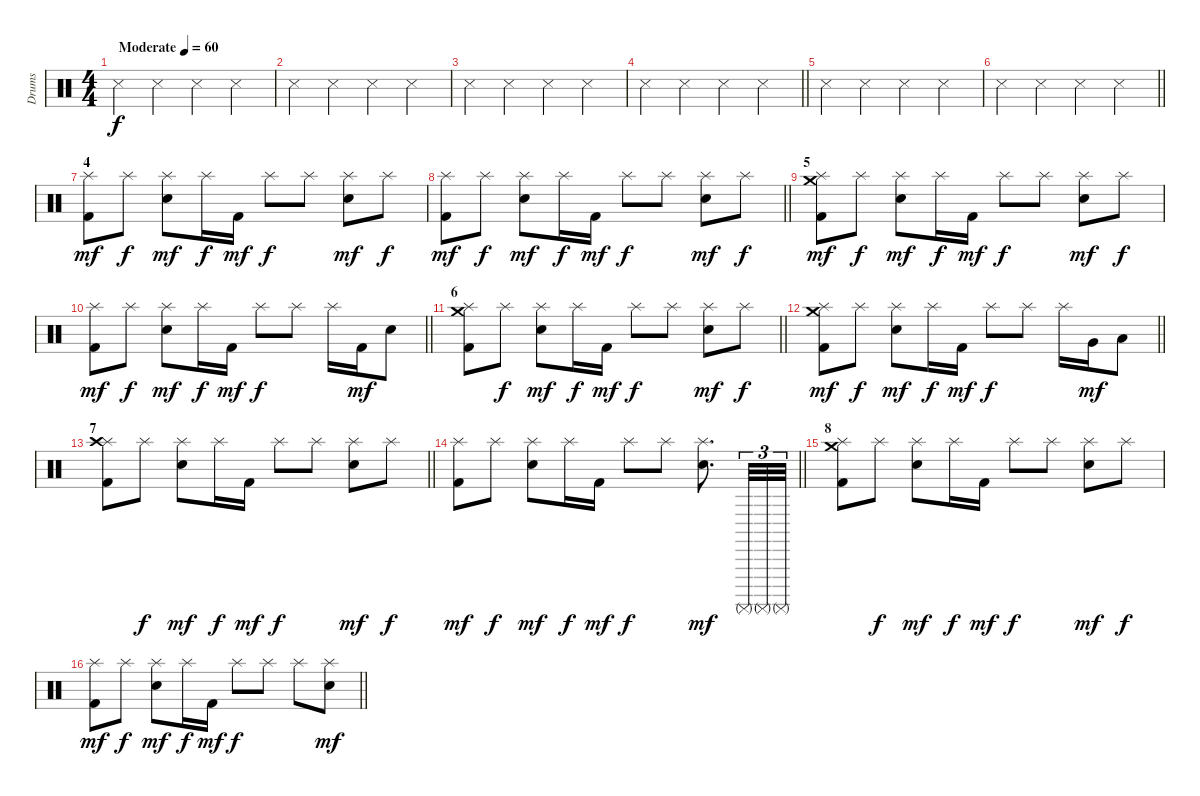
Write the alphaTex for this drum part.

\track ("Drums" "Drums") {instrument percussion}
\staff {score}
\articulation defaults
\ts (4 4)
\tempo (60 "Moderate")
\clef neutral
\ks c "Metronome (hit)".4{dy f} "Metronome (hit)".4 "Metronome (hit)".4 "Metronome (hit)".4
|
"Metronome (hit)".4 "Metronome (hit)".4 "Metronome (hit)".4 "Metronome (hit)".4 |
"Metronome (hit)".4 "Metronome (hit)".4 "Metronome (hit)".4 "Metronome (hit)".4 |
\barLineRight lightlight "Metronome (hit)".4 "Metronome (hit)".4 "Metronome (hit)".4 "Metronome (hit)".4
|
"Metronome (hit)".4 "Metronome (hit)".4 "Metronome (hit)".4 "Metronome (hit)".4 |
\barLineRight lightlight "Metronome (hit)".4 "Metronome (hit)".4 "Metronome (hit)".4 "Metronome (hit)".4
|
\section ("" "4")
("Splash (hit)" "Kick (hit) 2").8{dy mf} "Splash (hit)".8{dy f} ("Splash (hit)" "Electric Snare (hit)").8{dy mf} "Splash (hit)".16{dy f} "Kick (hit) 2".16{dy mf} "Splash (hit)".8{dy f} "Splash (hit)".8 ("Splash (hit)" "Electric Snare (hit)").8{dy mf} "Splash (hit)".8{dy f} |
\barLineRight lightlight
("Splash (hit)" "Kick (hit) 2").8{dy mf} "Splash (hit)".8{dy f} ("Splash (hit)" "Electric Snare (hit)").8{dy mf} "Splash (hit)".16{dy f} "Kick (hit) 2".16{dy mf} "Splash (hit)".8{dy f} "Splash (hit)".8 ("Splash (hit)" "Electric Snare (hit)").8{dy mf} "Splash (hit)".8{dy f} |
\section ("" "5")
("Splash (hit)" "Kick (hit) 2" "Crash medium (hit)").8{dy mf} "Splash (hit)".8{dy f} ("Splash (hit)" "Electric Snare (hit)").8{dy mf} "Splash (hit)".16{dy f} "Kick (hit) 2".16{dy mf} "Splash (hit)".8{dy f} "Splash (hit)".8 ("Splash (hit)" "Electric Snare (hit)").8{dy mf} "Splash (hit)".8{dy f} |
\barLineRight lightlight
("Splash (hit)" "Kick (hit) 2").8{dy mf} "Splash (hit)".8{dy f} ("Splash (hit)" "Electric Snare (hit)").8{dy mf} "Splash (hit)".16{dy f} "Kick (hit) 2".16{dy mf} "Splash (hit)".8{dy f} "Splash (hit)".8 "Splash (hit)".16 "Kick (hit) 2".16{dy mf} "Electric Snare (hit)".8 |
\section ("" "6")
\barLineRight lightlight
("Splash (hit)" "Kick (hit) 2" "Crash medium (hit)").8 "Splash (hit)".8{dy f} ("Splash (hit)" "Electric Snare (hit)").8{dy mf} "Splash (hit)".16{dy f} "Kick (hit) 2".16{dy mf} "Splash (hit)".8{dy f} "Splash (hit)".8 ("Splash (hit)" "Electric Snare (hit)").8{dy mf} "Splash (hit)".8{dy f} |
\barLineRight lightlight
("Splash (hit)" "Kick (hit) 2" "Crash medium (hit)").8{dy mf} "Splash (hit)".8{dy f} ("Splash (hit)" "Electric Snare (hit)").8{dy mf} "Splash (hit)".16{dy f} "Kick (hit) 2".16{dy mf} "Splash (hit)".8{dy f} "Splash (hit)".8 "Splash (hit)".16 "Very Low Tom (hit)".16{dy mf} "Low Floor Tom (hit)".8 |
\section ("" "7")
\barLineRight lightlight
("Splash (hit)" "Kick (hit) 2" "Crash high (hit)").8 "Splash (hit)".8{dy f} ("Splash (hit)" "Electric Snare (hit)").8{dy mf} "Splash (hit)".16{dy f} "Kick (hit) 2".16{dy mf} "Splash (hit)".8{dy f} "Splash (hit)".8 ("Splash (hit)" "Electric Snare (hit)").8{dy mf} "Splash (hit)".8{dy f} |
\section ("" "")
\barLineRight lightlight
("Splash (hit)" "Kick (hit) 2").8{dy mf} "Splash (hit)".8{dy f} ("Splash (hit)" "Electric Snare (hit)").8{dy mf} "Splash (hit)".16{dy f} "Kick (hit) 2".16{dy mf} "Splash (hit)".8{dy f} "Splash (hit)".8 ("Splash (hit)" "Electric Snare (hit)").8{d dy mf} "Surdo (mute)".32{tu (3 2)} "Surdo (mute)".32{tu (3 2)} "Surdo (mute)".32{tu (3 2)} |
\section ("" "8")
("Splash (hit)" "Kick (hit) 2" "Crash medium (hit)").8 "Splash (hit)".8{dy f} ("Splash (hit)" "Electric Snare (hit)").8{dy mf} "Splash (hit)".16{dy f} "Kick (hit) 2".16{dy mf} "Splash (hit)".8{dy f} "Splash (hit)".8 ("Splash (hit)" "Electric Snare (hit)").8{dy mf} "Splash (hit)".8{dy f} |
\barLineRight lightlight
("Splash (hit)" "Kick (hit) 2").8{dy mf} "Splash (hit)".8{dy f} ("Splash (hit)" "Electric Snare (hit)").8{dy mf} "Splash (hit)".16{dy f} "Kick (hit) 2".16{dy mf} "Splash (hit)".8{dy f} "Splash (hit)".8 "Splash (hit)".8 ("Splash (hit)" "Electric Snare (hit)").8{dy mf}
